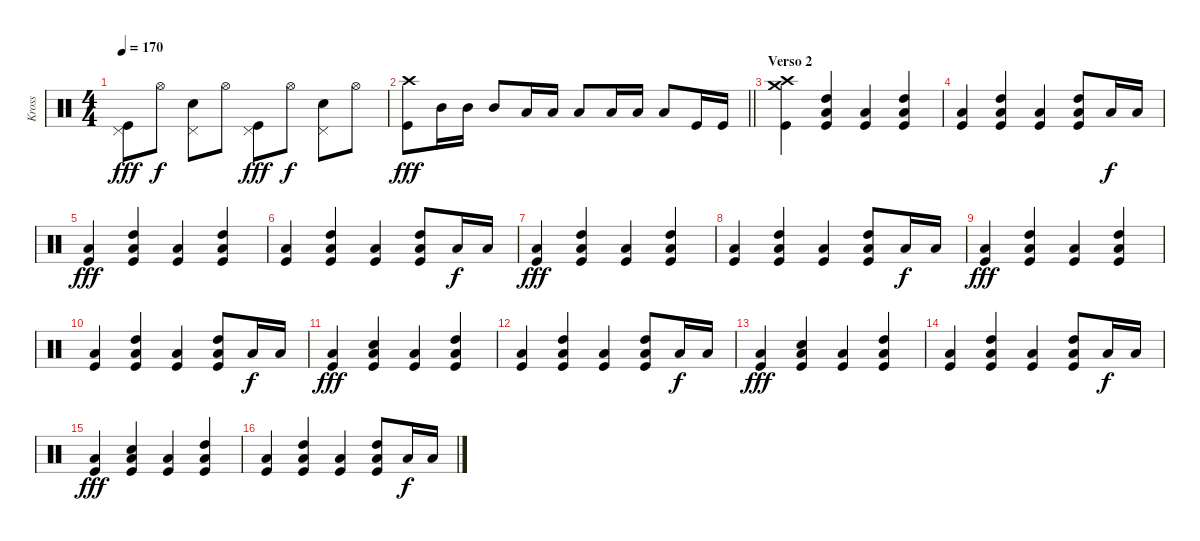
\track ("Kross" "Kross") {instrument percussion}
\staff {score}
\articulation defaults
\ts (4 4)
\tempo 170
\clef neutral
\ks c
("Pedal Hi-Hat (hit)" "Kick (hit)").8{dy fff} "Hi-Hat (open)".8{dy f} ("Pedal Hi-Hat (hit)" "Electric Snare (hit)").8 "Hi-Hat (open)".8 ("Pedal Hi-Hat (hit)" "Kick (hit)").8{dy fff} "Hi-Hat (open)".8{dy f} ("Pedal Hi-Hat (hit)" "Electric Snare (hit)").8 "Hi-Hat (open)".8 |
\barLineRight lightlight
("Crash high (hit)" "Kick (hit)").8{dy fff} "Mid Tom (hit)".16 "Mid Tom (hit)".16 "Mid Tom (hit)".8 "Low Tom (hit)".16 "Low Tom (hit)".16 "Low Tom (hit)".8 "Low Floor Tom (hit)".16 "Low Floor Tom (hit)".16 "Low Floor Tom (hit)".8 "Kick (hit)".16 "Kick (hit)".16 |
\section ("" "Verso 2")
("Crash high (hit)" "Crash medium (hit)" "Kick (hit)").4 ("High Tom (hit)" "Low Floor Tom (hit)" "Kick (hit)").4 ("Low Floor Tom (hit)" "Kick (hit)").4 ("High Tom (hit)" "Low Floor Tom (hit)" "Kick (hit)").4 |
("Low Floor Tom (hit)" "Kick (hit)").4 ("High Tom (hit)" "Low Floor Tom (hit)" "Kick (hit)").4 ("Low Floor Tom (hit)" "Kick (hit)").4 ("High Tom (hit)" "Low Floor Tom (hit)" "Kick (hit)").8 "Low Floor Tom (hit)".16{dy f} "Low Floor Tom (hit)".16 |
("Low Floor Tom (hit)" "Kick (hit)").4{dy fff} ("High Tom (hit)" "Low Floor Tom (hit)" "Kick (hit)").4 ("Low Floor Tom (hit)" "Kick (hit)").4 ("High Tom (hit)" "Low Floor Tom (hit)" "Kick (hit)").4 |
("Low Floor Tom (hit)" "Kick (hit)").4 ("High Tom (hit)" "Low Floor Tom (hit)" "Kick (hit)").4 ("Low Floor Tom (hit)" "Kick (hit)").4 ("High Tom (hit)" "Low Floor Tom (hit)" "Kick (hit)").8 "Low Floor Tom (hit)".16{dy f} "Low Floor Tom (hit)".16 |
("Low Floor Tom (hit)" "Kick (hit)").4{dy fff} ("High Tom (hit)" "Low Floor Tom (hit)" "Kick (hit)").4 ("Low Floor Tom (hit)" "Kick (hit)").4 ("High Tom (hit)" "Low Floor Tom (hit)" "Kick (hit)").4 |
("Low Floor Tom (hit)" "Kick (hit)").4 ("High Tom (hit)" "Low Floor Tom (hit)" "Kick (hit)").4 ("Low Floor Tom (hit)" "Kick (hit)").4 ("High Tom (hit)" "Low Floor Tom (hit)" "Kick (hit)").8 "Low Floor Tom (hit)".16{dy f} "Low Floor Tom (hit)".16 |
("Low Floor Tom (hit)" "Kick (hit)").4{dy fff} ("High Tom (hit)" "Low Floor Tom (hit)" "Kick (hit)").4 ("Low Floor Tom (hit)" "Kick (hit)").4 ("High Tom (hit)" "Low Floor Tom (hit)" "Kick (hit)").4 |
("Low Floor Tom (hit)" "Kick (hit)").4 ("High Tom (hit)" "Low Floor Tom (hit)" "Kick (hit)").4 ("Low Floor Tom (hit)" "Kick (hit)").4 ("High Tom (hit)" "Low Floor Tom (hit)" "Kick (hit)").8 "Low Floor Tom (hit)".16{dy f} "Low Floor Tom (hit)".16 |
("Low Floor Tom (hit)" "Kick (hit)").4{dy fff} ("Electric Snare (hit)" "Low Floor Tom (hit)" "Kick (hit)").4 ("Low Floor Tom (hit)" "Kick (hit)").4 ("High Tom (hit)" "Low Floor Tom (hit)" "Kick (hit)").4 |
("Low Floor Tom (hit)" "Kick (hit)").4 ("High Tom (hit)" "Low Floor Tom (hit)" "Kick (hit)").4 ("Low Floor Tom (hit)" "Kick (hit)").4 ("High Tom (hit)" "Low Floor Tom (hit)" "Kick (hit)").8 "Low Floor Tom (hit)".16{dy f} "Low Floor Tom (hit)".16 |
("Low Floor Tom (hit)" "Kick (hit)").4{dy fff} ("Electric Snare (hit)" "Low Floor Tom (hit)" "Kick (hit)").4 ("Low Floor Tom (hit)" "Kick (hit)").4 ("High Tom (hit)" "Low Floor Tom (hit)" "Kick (hit)").4 |
("Low Floor Tom (hit)" "Kick (hit)").4 ("High Tom (hit)" "Low Floor Tom (hit)" "Kick (hit)").4 ("Low Floor Tom (hit)" "Kick (hit)").4 ("High Tom (hit)" "Low Floor Tom (hit)" "Kick (hit)").8 "Low Floor Tom (hit)".16{dy f} "Low Floor Tom (hit)".16 |
("Low Floor Tom (hit)" "Kick (hit)").4{dy fff} ("Electric Snare (hit)" "Low Floor Tom (hit)" "Kick (hit)").4 ("Low Floor Tom (hit)" "Kick (hit)").4 ("High Tom (hit)" "Low Floor Tom (hit)" "Kick (hit)").4 |
("Low Floor Tom (hit)" "Kick (hit)").4 ("High Tom (hit)" "Low Floor Tom (hit)" "Kick (hit)").4 ("Low Floor Tom (hit)" "Kick (hit)").4 ("High Tom (hit)" "Low Floor Tom (hit)" "Kick (hit)").8 "Low Floor Tom (hit)".16{dy f} "Low Floor Tom (hit)".16
